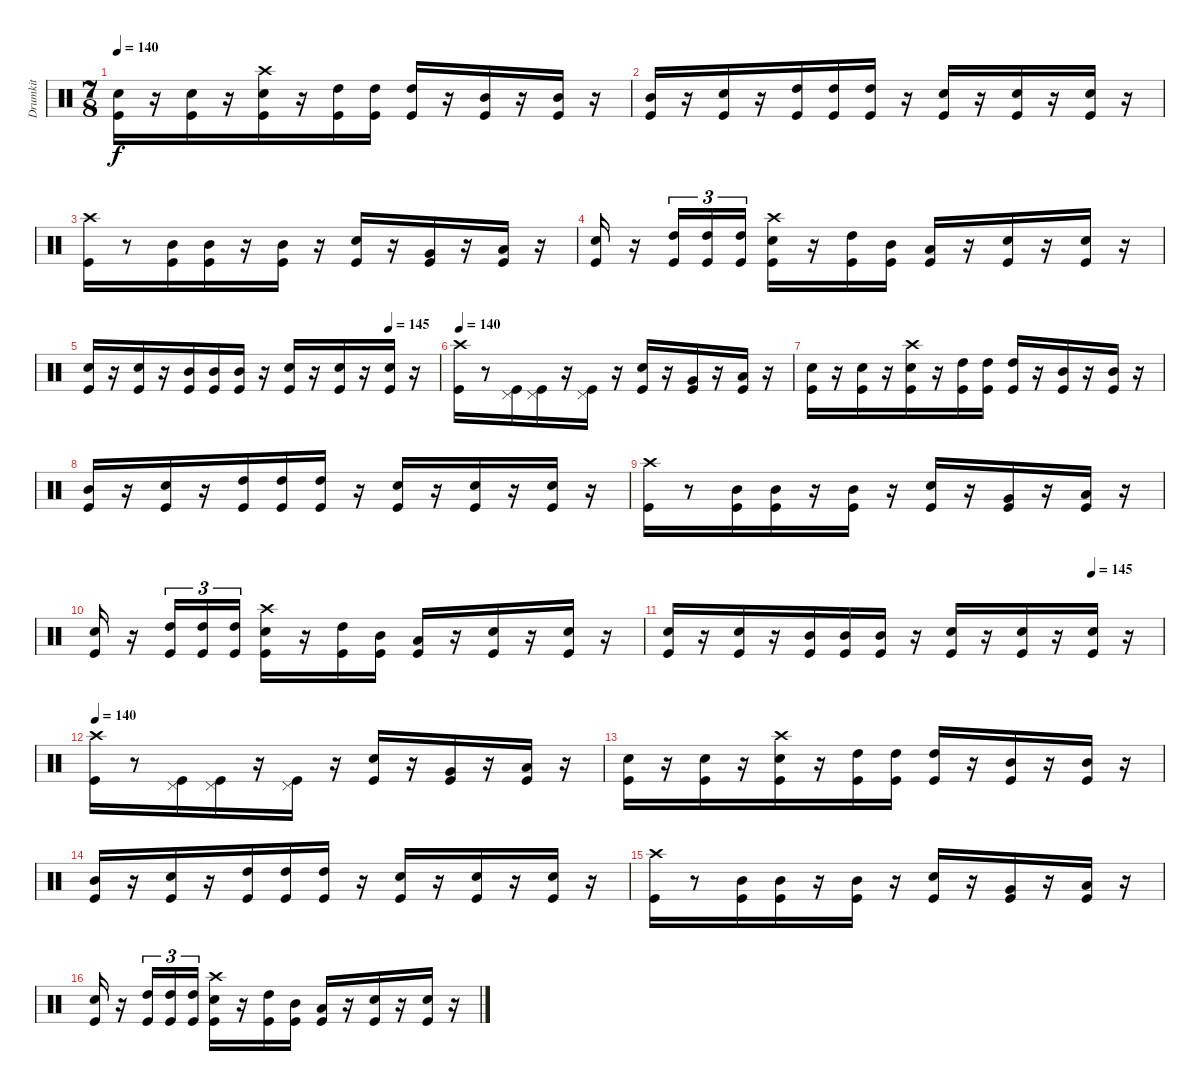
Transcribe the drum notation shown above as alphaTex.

\track ("Drumkit" "Drumkit") {instrument percussion}
\staff {score}
\articulation defaults
\ts (7 8)
\tempo 140
\clef neutral
\ks c
("Snare (hit) 2" "Kick (hit)").16{dy f} r.16 ("Snare (hit) 2" "Kick (hit)").16 r.16 ("Crash high (hit)" "Snare (hit) 2" "Kick (hit)").16 r.16 ("High Tom (hit)" "Kick (hit)").16 ("High Tom (hit)" "Kick (hit)").16 ("High Tom (hit)" "Kick (hit)").16 r.16 ("Mid Tom (hit)" "Kick (hit)").16 r.16 ("Mid Tom (hit)" "Kick (hit)").16 r.16 |
("Mid Tom (hit)" "Kick (hit)").16 r.16 ("Snare (hit) 2" "Kick (hit)").16 r.16 ("High Tom (hit)" "Kick (hit)").16 ("High Tom (hit)" "Kick (hit)").16 ("High Tom (hit)" "Kick (hit)").16 r.16 ("Snare (hit) 2" "Kick (hit)").16 r.16 ("Snare (hit) 2" "Kick (hit)").16 r.16 ("Snare (hit) 2" "Kick (hit)").16 r.16 |
("Crash high (hit)" "Kick (hit)").16 r.8 ("Mid Tom (hit)" "Kick (hit)").16 ("Mid Tom (hit)" "Kick (hit)").16 r.16 ("Mid Tom (hit)" "Kick (hit)").16 r.16 ("Snare (hit) 2" "Kick (hit)").16 r.16 ("Very Low Tom (hit)" "Kick (hit)").16 r.16 ("Low Tom (hit)" "Kick (hit)").16 r.16 |
("Snare (hit) 2" "Kick (hit)").16 r.16 ("High Tom (hit)" "Kick (hit)").16{tu (3 2)} ("High Tom (hit)" "Kick (hit)").16{tu (3 2)} ("High Tom (hit)" "Kick (hit)").16{tu (3 2)} ("Crash high (hit)" "Snare (hit) 2" "Kick (hit)").16 r.16 ("High Tom (hit)" "Kick (hit)").16 ("Mid Tom (hit)" "Kick (hit)").16 ("Low Tom (hit)" "Kick (hit)").16 r.16 ("Snare (hit) 2" "Kick (hit)").16 r.16 ("Snare (hit) 2" "Kick (hit)").16 r.16 |
\tempo (145 0.8571428571428571)
("Snare (hit) 2" "Kick (hit)").16 r.16 ("Snare (hit) 2" "Kick (hit)").16 r.16 ("Mid Tom (hit)" "Kick (hit)").16 ("Mid Tom (hit)" "Kick (hit)").16 ("Mid Tom (hit)" "Kick (hit)").16 r.16 ("Snare (hit) 2" "Kick (hit)").16 r.16 ("Snare (hit) 2" "Kick (hit)").16 r.16 ("Snare (hit) 2" "Kick (hit)").16 r.16 |
\tempo 140
("Crash high (hit)" "Kick (hit)").16 r.8 ("Pedal Hi-Hat (hit)" "Kick (hit)").16 ("Pedal Hi-Hat (hit)" "Kick (hit)").16 r.16 ("Pedal Hi-Hat (hit)" "Kick (hit)").16 r.16 ("Snare (hit) 2" "Kick (hit)").16 r.16 ("Very Low Tom (hit)" "Kick (hit)").16 r.16 ("Low Tom (hit)" "Kick (hit)").16 r.16 |
("Snare (hit) 2" "Kick (hit)").16 r.16 ("Snare (hit) 2" "Kick (hit)").16 r.16 ("Crash high (hit)" "Snare (hit) 2" "Kick (hit)").16 r.16 ("High Tom (hit)" "Kick (hit)").16 ("High Tom (hit)" "Kick (hit)").16 ("High Tom (hit)" "Kick (hit)").16 r.16 ("Mid Tom (hit)" "Kick (hit)").16 r.16 ("Mid Tom (hit)" "Kick (hit)").16 r.16 |
("Mid Tom (hit)" "Kick (hit)").16 r.16 ("Snare (hit) 2" "Kick (hit)").16 r.16 ("High Tom (hit)" "Kick (hit)").16 ("High Tom (hit)" "Kick (hit)").16 ("High Tom (hit)" "Kick (hit)").16 r.16 ("Snare (hit) 2" "Kick (hit)").16 r.16 ("Snare (hit) 2" "Kick (hit)").16 r.16 ("Snare (hit) 2" "Kick (hit)").16 r.16 |
("Crash high (hit)" "Kick (hit)").16 r.8 ("Mid Tom (hit)" "Kick (hit)").16 ("Mid Tom (hit)" "Kick (hit)").16 r.16 ("Mid Tom (hit)" "Kick (hit)").16 r.16 ("Snare (hit) 2" "Kick (hit)").16 r.16 ("Very Low Tom (hit)" "Kick (hit)").16 r.16 ("Low Tom (hit)" "Kick (hit)").16 r.16 |
("Snare (hit) 2" "Kick (hit)").16 r.16 ("High Tom (hit)" "Kick (hit)").16{tu (3 2)} ("High Tom (hit)" "Kick (hit)").16{tu (3 2)} ("High Tom (hit)" "Kick (hit)").16{tu (3 2)} ("Crash high (hit)" "Snare (hit) 2" "Kick (hit)").16 r.16 ("High Tom (hit)" "Kick (hit)").16 ("Mid Tom (hit)" "Kick (hit)").16 ("Low Tom (hit)" "Kick (hit)").16 r.16 ("Snare (hit) 2" "Kick (hit)").16 r.16 ("Snare (hit) 2" "Kick (hit)").16 r.16 |
\tempo (145 0.8571428571428571)
("Snare (hit) 2" "Kick (hit)").16 r.16 ("Snare (hit) 2" "Kick (hit)").16 r.16 ("Mid Tom (hit)" "Kick (hit)").16 ("Mid Tom (hit)" "Kick (hit)").16 ("Mid Tom (hit)" "Kick (hit)").16 r.16 ("Snare (hit) 2" "Kick (hit)").16 r.16 ("Snare (hit) 2" "Kick (hit)").16 r.16 ("Snare (hit) 2" "Kick (hit)").16 r.16 |
\tempo 140
("Crash high (hit)" "Kick (hit)").16 r.8 ("Pedal Hi-Hat (hit)" "Kick (hit)").16 ("Pedal Hi-Hat (hit)" "Kick (hit)").16 r.16 ("Pedal Hi-Hat (hit)" "Kick (hit)").16 r.16 ("Snare (hit) 2" "Kick (hit)").16 r.16 ("Very Low Tom (hit)" "Kick (hit)").16 r.16 ("Low Tom (hit)" "Kick (hit)").16 r.16 |
("Snare (hit) 2" "Kick (hit)").16 r.16 ("Snare (hit) 2" "Kick (hit)").16 r.16 ("Crash high (hit)" "Snare (hit) 2" "Kick (hit)").16 r.16 ("High Tom (hit)" "Kick (hit)").16 ("High Tom (hit)" "Kick (hit)").16 ("High Tom (hit)" "Kick (hit)").16 r.16 ("Mid Tom (hit)" "Kick (hit)").16 r.16 ("Mid Tom (hit)" "Kick (hit)").16 r.16 |
("Mid Tom (hit)" "Kick (hit)").16 r.16 ("Snare (hit) 2" "Kick (hit)").16 r.16 ("High Tom (hit)" "Kick (hit)").16 ("High Tom (hit)" "Kick (hit)").16 ("High Tom (hit)" "Kick (hit)").16 r.16 ("Snare (hit) 2" "Kick (hit)").16 r.16 ("Snare (hit) 2" "Kick (hit)").16 r.16 ("Snare (hit) 2" "Kick (hit)").16 r.16 |
("Crash high (hit)" "Kick (hit)").16 r.8 ("Mid Tom (hit)" "Kick (hit)").16 ("Mid Tom (hit)" "Kick (hit)").16 r.16 ("Mid Tom (hit)" "Kick (hit)").16 r.16 ("Snare (hit) 2" "Kick (hit)").16 r.16 ("Very Low Tom (hit)" "Kick (hit)").16 r.16 ("Low Tom (hit)" "Kick (hit)").16 r.16 |
("Snare (hit) 2" "Kick (hit)").16 r.16 ("High Tom (hit)" "Kick (hit)").16{tu (3 2)} ("High Tom (hit)" "Kick (hit)").16{tu (3 2)} ("High Tom (hit)" "Kick (hit)").16{tu (3 2)} ("Crash high (hit)" "Snare (hit) 2" "Kick (hit)").16 r.16 ("High Tom (hit)" "Kick (hit)").16 ("Mid Tom (hit)" "Kick (hit)").16 ("Low Tom (hit)" "Kick (hit)").16 r.16 ("Snare (hit) 2" "Kick (hit)").16 r.16 ("Snare (hit) 2" "Kick (hit)").16 r.16
